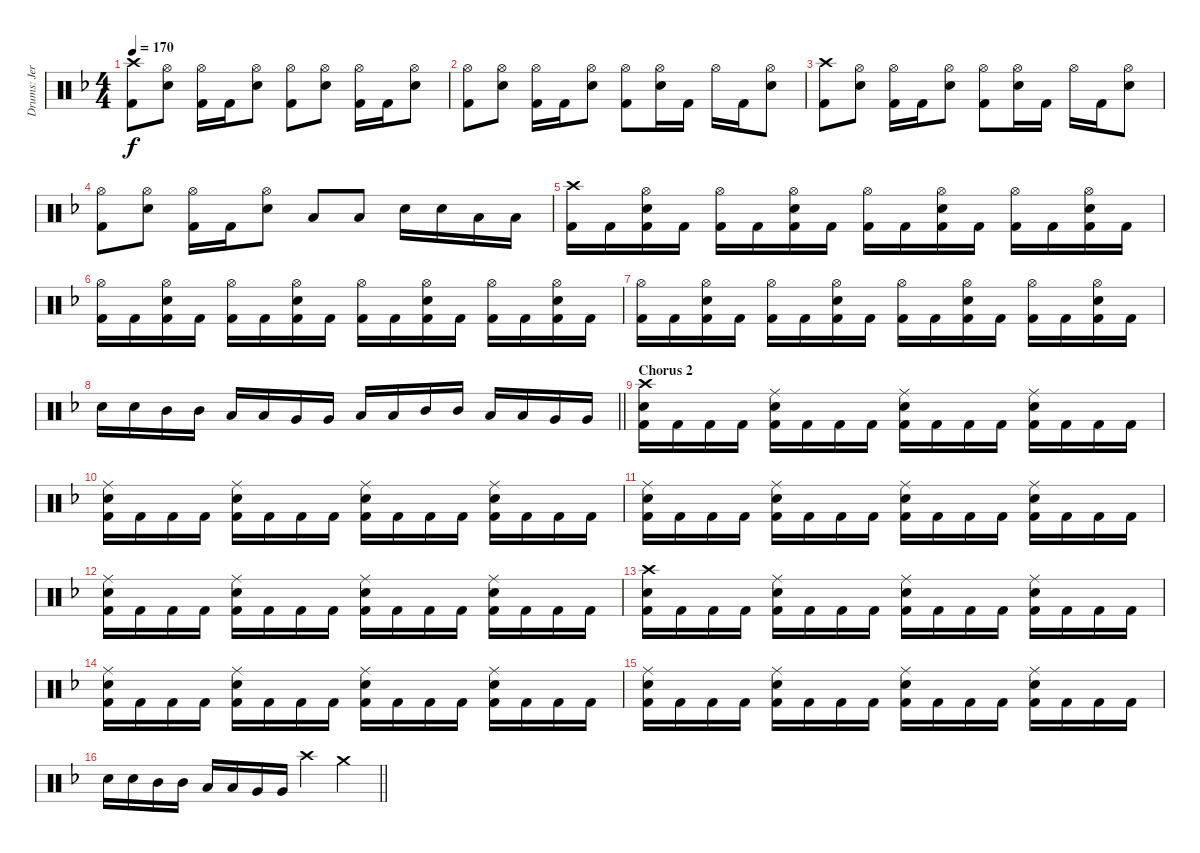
\track ("Drums: Jere Luokkamäki" "Drums: Jer") {instrument percussion}
\staff {score}
\articulation defaults
\ts (4 4)
\tempo 170
\clef neutral
\ks dminor
("Crash high (hit)" "Kick (hit) 2").8{dy f} ("Hi-Hat (open)" "Electric Snare (hit)").8 ("Hi-Hat (open)" "Kick (hit) 2").16 "Kick (hit) 2".16 ("Hi-Hat (open)" "Electric Snare (hit)").8 ("Hi-Hat (open)" "Kick (hit) 2").8 ("Hi-Hat (open)" "Electric Snare (hit)").8 ("Hi-Hat (open)" "Kick (hit) 2").16 "Kick (hit) 2".16 ("Hi-Hat (open)" "Electric Snare (hit)").8 |
("Hi-Hat (open)" "Kick (hit) 2").8 ("Hi-Hat (open)" "Electric Snare (hit)").8 ("Hi-Hat (open)" "Kick (hit) 2").16 "Kick (hit) 2".16 ("Hi-Hat (open)" "Electric Snare (hit)").8 ("Hi-Hat (open)" "Kick (hit) 2").8 ("Hi-Hat (open)" "Electric Snare (hit)").16 "Kick (hit) 2".16 "Hi-Hat (open)".16 "Kick (hit) 2".16 ("Hi-Hat (open)" "Electric Snare (hit)").8 |
("Crash high (hit)" "Kick (hit) 2").8 ("Hi-Hat (open)" "Electric Snare (hit)").8 ("Hi-Hat (open)" "Kick (hit) 2").16 "Kick (hit) 2".16 ("Hi-Hat (open)" "Electric Snare (hit)").8 ("Hi-Hat (open)" "Kick (hit) 2").8 ("Hi-Hat (open)" "Electric Snare (hit)").16 "Kick (hit) 2".16 "Hi-Hat (open)".16 "Kick (hit) 2".16 ("Hi-Hat (open)" "Electric Snare (hit)").8 |
("Hi-Hat (open)" "Kick (hit) 2").8 ("Hi-Hat (open)" "Electric Snare (hit)").8 ("Hi-Hat (open)" "Kick (hit) 2").16 "Kick (hit) 2".16 ("Hi-Hat (open)" "Electric Snare (hit)").8 "Low Tom (hit)".8 "Low Tom (hit)".8 "Electric Snare (hit)".16 "Electric Snare (hit)".16 "Low Tom (hit)".16 "Low Tom (hit)".16 |
("Crash high (hit)" "Kick (hit) 2").16 "Kick (hit) 2".16 ("Hi-Hat (open)" "Electric Snare (hit)" "Kick (hit) 2").16 "Kick (hit) 2".16 ("Hi-Hat (open)" "Kick (hit) 2").16 "Kick (hit) 2".16 ("Hi-Hat (open)" "Electric Snare (hit)" "Kick (hit) 2").16 "Kick (hit) 2".16 ("Hi-Hat (open)" "Kick (hit) 2").16 "Kick (hit) 2".16 ("Hi-Hat (open)" "Electric Snare (hit)" "Kick (hit) 2").16 "Kick (hit) 2".16 ("Hi-Hat (open)" "Kick (hit) 2").16 "Kick (hit) 2".16 ("Hi-Hat (open)" "Electric Snare (hit)" "Kick (hit) 2").16 "Kick (hit) 2".16 |
("Hi-Hat (open)" "Kick (hit) 2").16 "Kick (hit) 2".16 ("Hi-Hat (open)" "Electric Snare (hit)" "Kick (hit) 2").16 "Kick (hit) 2".16 ("Hi-Hat (open)" "Kick (hit) 2").16 "Kick (hit) 2".16 ("Hi-Hat (open)" "Electric Snare (hit)" "Kick (hit) 2").16 "Kick (hit) 2".16 ("Hi-Hat (open)" "Kick (hit) 2").16 "Kick (hit) 2".16 ("Hi-Hat (open)" "Electric Snare (hit)" "Kick (hit) 2").16 "Kick (hit) 2".16 ("Hi-Hat (open)" "Kick (hit) 2").16 "Kick (hit) 2".16 ("Hi-Hat (open)" "Electric Snare (hit)" "Kick (hit) 2").16 "Kick (hit) 2".16 |
("Hi-Hat (open)" "Kick (hit) 2").16 "Kick (hit) 2".16 ("Hi-Hat (open)" "Electric Snare (hit)" "Kick (hit) 2").16 "Kick (hit) 2".16 ("Hi-Hat (open)" "Kick (hit) 2").16 "Kick (hit) 2".16 ("Hi-Hat (open)" "Electric Snare (hit)" "Kick (hit) 2").16 "Kick (hit) 2".16 ("Hi-Hat (open)" "Kick (hit) 2").16 "Kick (hit) 2".16 ("Hi-Hat (open)" "Electric Snare (hit)" "Kick (hit) 2").16 "Kick (hit) 2".16 ("Hi-Hat (open)" "Kick (hit) 2").16 "Kick (hit) 2".16 ("Hi-Hat (open)" "Electric Snare (hit)" "Kick (hit) 2").16 "Kick (hit) 2".16 |
\barLineRight lightlight "Electric Snare (hit)".16 "Electric Snare (hit)".16 "Mid Tom (hit)".16 "Mid Tom (hit)".16 "Low Tom (hit)".16 "Low Tom (hit)".16 "Very Low Tom (hit)".16 "Very Low Tom (hit)".16 "Low Tom (hit)".16 "Low Tom (hit)".16 "Mid Tom (hit)".16 "Mid Tom (hit)".16 "Low Tom (hit)".16 "Low Tom (hit)".16 "Very Low Tom (hit)".16 "Very Low Tom (hit)".16
|
\section ("" "Chorus 2")
("Crash high (hit)" "Electric Snare (hit)" "Kick (hit) 2").16 "Kick (hit) 2".16 "Kick (hit) 2".16 "Kick (hit) 2".16 ("Ride (middle)" "Electric Snare (hit)" "Kick (hit) 2").16 "Kick (hit) 2".16 "Kick (hit) 2".16 "Kick (hit) 2".16 ("Ride (middle)" "Electric Snare (hit)" "Kick (hit) 2").16 "Kick (hit) 2".16 "Kick (hit) 2".16 "Kick (hit) 2".16 ("Ride (middle)" "Electric Snare (hit)" "Kick (hit) 2").16 "Kick (hit) 2".16 "Kick (hit) 2".16 "Kick (hit) 2".16 |
("Ride (middle)" "Electric Snare (hit)" "Kick (hit) 2").16 "Kick (hit) 2".16 "Kick (hit) 2".16 "Kick (hit) 2".16 ("Ride (middle)" "Electric Snare (hit)" "Kick (hit) 2").16 "Kick (hit) 2".16 "Kick (hit) 2".16 "Kick (hit) 2".16 ("Ride (middle)" "Electric Snare (hit)" "Kick (hit) 2").16 "Kick (hit) 2".16 "Kick (hit) 2".16 "Kick (hit) 2".16 ("Ride (middle)" "Electric Snare (hit)" "Kick (hit) 2").16 "Kick (hit) 2".16 "Kick (hit) 2".16 "Kick (hit) 2".16 |
("Ride (middle)" "Electric Snare (hit)" "Kick (hit) 2").16 "Kick (hit) 2".16 "Kick (hit) 2".16 "Kick (hit) 2".16 ("Ride (middle)" "Electric Snare (hit)" "Kick (hit) 2").16 "Kick (hit) 2".16 "Kick (hit) 2".16 "Kick (hit) 2".16 ("Ride (middle)" "Electric Snare (hit)" "Kick (hit) 2").16 "Kick (hit) 2".16 "Kick (hit) 2".16 "Kick (hit) 2".16 ("Ride (middle)" "Electric Snare (hit)" "Kick (hit) 2").16 "Kick (hit) 2".16 "Kick (hit) 2".16 "Kick (hit) 2".16 |
("Ride (middle)" "Electric Snare (hit)" "Kick (hit) 2").16 "Kick (hit) 2".16 "Kick (hit) 2".16 "Kick (hit) 2".16 ("Ride (middle)" "Electric Snare (hit)" "Kick (hit) 2").16 "Kick (hit) 2".16 "Kick (hit) 2".16 "Kick (hit) 2".16 ("Ride (middle)" "Electric Snare (hit)" "Kick (hit) 2").16 "Kick (hit) 2".16 "Kick (hit) 2".16 "Kick (hit) 2".16 ("Ride (middle)" "Electric Snare (hit)" "Kick (hit) 2").16 "Kick (hit) 2".16 "Kick (hit) 2".16 "Kick (hit) 2".16 |
("Crash high (hit)" "Electric Snare (hit)" "Kick (hit) 2").16 "Kick (hit) 2".16 "Kick (hit) 2".16 "Kick (hit) 2".16 ("Ride (middle)" "Electric Snare (hit)" "Kick (hit) 2").16 "Kick (hit) 2".16 "Kick (hit) 2".16 "Kick (hit) 2".16 ("Ride (middle)" "Electric Snare (hit)" "Kick (hit) 2").16 "Kick (hit) 2".16 "Kick (hit) 2".16 "Kick (hit) 2".16 ("Ride (middle)" "Electric Snare (hit)" "Kick (hit) 2").16 "Kick (hit) 2".16 "Kick (hit) 2".16 "Kick (hit) 2".16 |
("Ride (middle)" "Electric Snare (hit)" "Kick (hit) 2").16 "Kick (hit) 2".16 "Kick (hit) 2".16 "Kick (hit) 2".16 ("Ride (middle)" "Electric Snare (hit)" "Kick (hit) 2").16 "Kick (hit) 2".16 "Kick (hit) 2".16 "Kick (hit) 2".16 ("Ride (middle)" "Electric Snare (hit)" "Kick (hit) 2").16 "Kick (hit) 2".16 "Kick (hit) 2".16 "Kick (hit) 2".16 ("Ride (middle)" "Electric Snare (hit)" "Kick (hit) 2").16 "Kick (hit) 2".16 "Kick (hit) 2".16 "Kick (hit) 2".16 |
("Ride (middle)" "Electric Snare (hit)" "Kick (hit) 2").16 "Kick (hit) 2".16 "Kick (hit) 2".16 "Kick (hit) 2".16 ("Ride (middle)" "Electric Snare (hit)" "Kick (hit) 2").16 "Kick (hit) 2".16 "Kick (hit) 2".16 "Kick (hit) 2".16 ("Ride (middle)" "Electric Snare (hit)" "Kick (hit) 2").16 "Kick (hit) 2".16 "Kick (hit) 2".16 "Kick (hit) 2".16 ("Ride (middle)" "Electric Snare (hit)" "Kick (hit) 2").16 "Kick (hit) 2".16 "Kick (hit) 2".16 "Kick (hit) 2".16 |
\barLineRight lightlight "Electric Snare (hit)".16 "Electric Snare (hit)".16 "Mid Tom (hit)".16 "Mid Tom (hit)".16 "Low Tom (hit)".16 "Low Tom (hit)".16 "Very Low Tom (hit)".16 "Very Low Tom (hit)".16 "Crash high (hit)".4 "Crash medium (hit)".4
